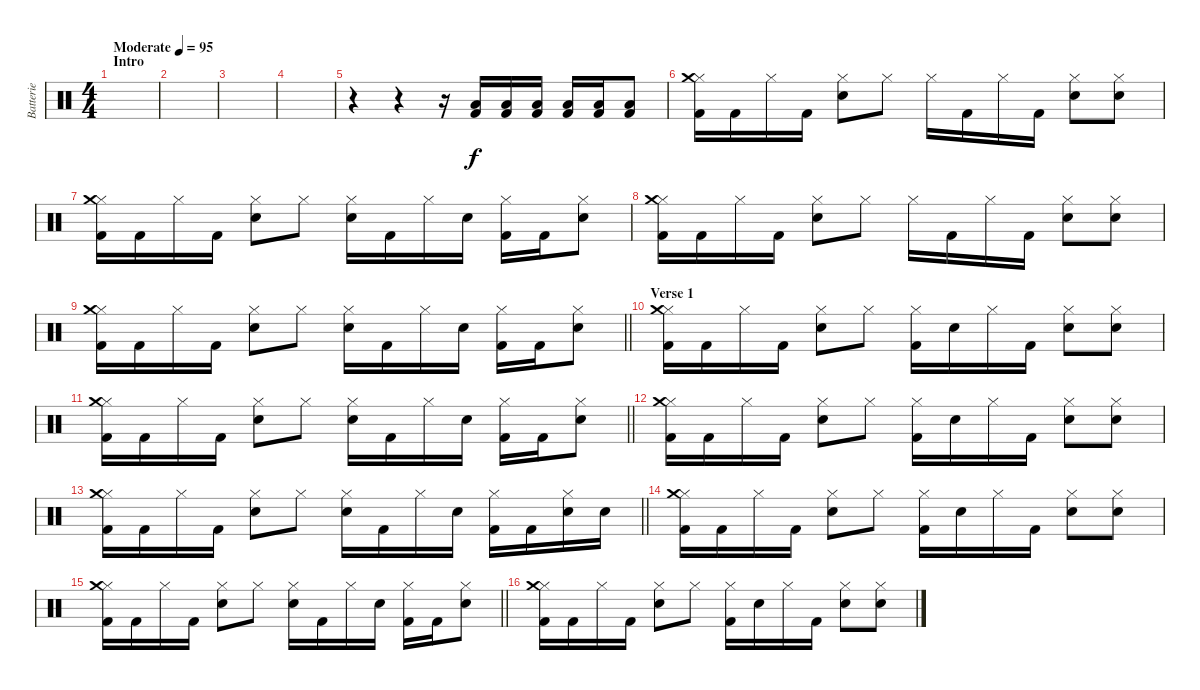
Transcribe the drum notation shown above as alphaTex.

\track ("Batterie" "Batterie") {instrument percussion}
\staff {score}
\articulation defaults
\ts (4 4)
\section ("" "Intro")
\tempo (95 "Moderate")
\clef neutral
\ks c
|
|
|
|
r.4 r.4 r.16 ("Low Tom (hit)" "Kick (hit) 2").16 ("Low Tom (hit)" "Kick (hit) 2").16 ("Low Tom (hit)" "Kick (hit) 2").16 ("Low Tom (hit)" "Kick (hit) 2").16 ("Low Tom (hit)" "Kick (hit) 2").16 ("Low Tom (hit)" "Kick (hit) 2").8 |
("Hi-Hat (closed)" "Crash medium (hit)" "Kick (hit) 2").16 "Kick (hit) 2".16 "Hi-Hat (closed)".16 "Kick (hit) 2".16 ("Hi-Hat (closed)" "Electric Snare (hit)").8 "Hi-Hat (closed)".8 "Hi-Hat (closed)".16 "Kick (hit) 2".16 "Hi-Hat (closed)".16 "Kick (hit) 2".16 ("Hi-Hat (closed)" "Electric Snare (hit)").8 ("Hi-Hat (closed)" "Electric Snare (hit)").8 |
("Hi-Hat (closed)" "Crash medium (hit)" "Kick (hit) 2").16 "Kick (hit) 2".16 "Hi-Hat (closed)".16 "Kick (hit) 2".16 ("Hi-Hat (closed)" "Electric Snare (hit)").8 "Hi-Hat (closed)".8 ("Hi-Hat (closed)" "Electric Snare (hit)").16 "Kick (hit) 2".16 "Hi-Hat (closed)".16 "Electric Snare (hit)".16 ("Hi-Hat (closed)" "Kick (hit) 2").16 "Kick (hit) 2".16 ("Hi-Hat (closed)" "Electric Snare (hit)").8 |
("Hi-Hat (closed)" "Crash medium (hit)" "Kick (hit) 2").16 "Kick (hit) 2".16 "Hi-Hat (closed)".16 "Kick (hit) 2".16 ("Hi-Hat (closed)" "Electric Snare (hit)").8 "Hi-Hat (closed)".8 "Hi-Hat (closed)".16 "Kick (hit) 2".16 "Hi-Hat (closed)".16 "Kick (hit) 2".16 ("Hi-Hat (closed)" "Electric Snare (hit)").8 ("Hi-Hat (closed)" "Electric Snare (hit)").8 |
\barLineRight lightlight
("Hi-Hat (closed)" "Crash medium (hit)" "Kick (hit) 2").16 "Kick (hit) 2".16 "Hi-Hat (closed)".16 "Kick (hit) 2".16 ("Hi-Hat (closed)" "Electric Snare (hit)").8 "Hi-Hat (closed)".8 ("Hi-Hat (closed)" "Electric Snare (hit)").16 "Kick (hit) 2".16 "Hi-Hat (closed)".16 "Electric Snare (hit)".16 ("Hi-Hat (closed)" "Kick (hit) 2").16 "Kick (hit) 2".16 ("Hi-Hat (closed)" "Electric Snare (hit)").8 |
\section ("" "Verse 1")
("Hi-Hat (closed)" "Crash medium (hit)" "Kick (hit) 2").16 "Kick (hit) 2".16 "Hi-Hat (closed)".16 "Kick (hit) 2".16 ("Hi-Hat (closed)" "Electric Snare (hit)").8 "Hi-Hat (closed)".8 ("Hi-Hat (closed)" "Kick (hit) 2").16 "Electric Snare (hit)".16 "Hi-Hat (closed)".16 "Kick (hit) 2".16 ("Hi-Hat (closed)" "Electric Snare (hit)").8 ("Hi-Hat (closed)" "Electric Snare (hit)").8 |
\barLineRight lightlight
("Hi-Hat (closed)" "Crash medium (hit)" "Kick (hit) 2").16 "Kick (hit) 2".16 "Hi-Hat (closed)".16 "Kick (hit) 2".16 ("Hi-Hat (closed)" "Electric Snare (hit)").8 "Hi-Hat (closed)".8 ("Hi-Hat (closed)" "Electric Snare (hit)").16 "Kick (hit) 2".16 "Hi-Hat (closed)".16 "Electric Snare (hit)".16 ("Hi-Hat (closed)" "Kick (hit) 2").16 "Kick (hit) 2".16 ("Hi-Hat (closed)" "Electric Snare (hit)").8 |
("Hi-Hat (closed)" "Crash medium (hit)" "Kick (hit) 2").16 "Kick (hit) 2".16 "Hi-Hat (closed)".16 "Kick (hit) 2".16 ("Hi-Hat (closed)" "Electric Snare (hit)").8 "Hi-Hat (closed)".8 ("Hi-Hat (closed)" "Kick (hit) 2").16 "Electric Snare (hit)".16 "Hi-Hat (closed)".16 "Kick (hit) 2".16 ("Hi-Hat (closed)" "Electric Snare (hit)").8 ("Hi-Hat (closed)" "Electric Snare (hit)").8 |
\barLineRight lightlight
("Hi-Hat (closed)" "Crash medium (hit)" "Kick (hit) 2").16 "Kick (hit) 2".16 "Hi-Hat (closed)".16 "Kick (hit) 2".16 ("Hi-Hat (closed)" "Electric Snare (hit)").8 "Hi-Hat (closed)".8 ("Hi-Hat (closed)" "Electric Snare (hit)").16 "Kick (hit) 2".16 "Hi-Hat (closed)".16 "Electric Snare (hit)".16 ("Hi-Hat (closed)" "Kick (hit) 2").16 "Kick (hit) 2".16 ("Hi-Hat (closed)" "Electric Snare (hit)").16 "Electric Snare (hit)".16 |
("Hi-Hat (closed)" "Crash medium (hit)" "Kick (hit) 2").16 "Kick (hit) 2".16 "Hi-Hat (closed)".16 "Kick (hit) 2".16 ("Hi-Hat (closed)" "Electric Snare (hit)").8 "Hi-Hat (closed)".8 ("Hi-Hat (closed)" "Kick (hit) 2").16 "Electric Snare (hit)".16 "Hi-Hat (closed)".16 "Kick (hit) 2".16 ("Hi-Hat (closed)" "Electric Snare (hit)").8 ("Hi-Hat (closed)" "Electric Snare (hit)").8 |
\barLineRight lightlight
("Hi-Hat (closed)" "Crash medium (hit)" "Kick (hit) 2").16 "Kick (hit) 2".16 "Hi-Hat (closed)".16 "Kick (hit) 2".16 ("Hi-Hat (closed)" "Electric Snare (hit)").8 "Hi-Hat (closed)".8 ("Hi-Hat (closed)" "Electric Snare (hit)").16 "Kick (hit) 2".16 "Hi-Hat (closed)".16 "Electric Snare (hit)".16 ("Hi-Hat (closed)" "Kick (hit) 2").16 "Kick (hit) 2".16 ("Hi-Hat (closed)" "Electric Snare (hit)").8 |
("Hi-Hat (closed)" "Crash medium (hit)" "Kick (hit) 2").16 "Kick (hit) 2".16 "Hi-Hat (closed)".16 "Kick (hit) 2".16 ("Hi-Hat (closed)" "Electric Snare (hit)").8 "Hi-Hat (closed)".8 ("Hi-Hat (closed)" "Kick (hit) 2").16 "Electric Snare (hit)".16 "Hi-Hat (closed)".16 "Kick (hit) 2".16 ("Hi-Hat (closed)" "Electric Snare (hit)").8 ("Hi-Hat (closed)" "Electric Snare (hit)").8
